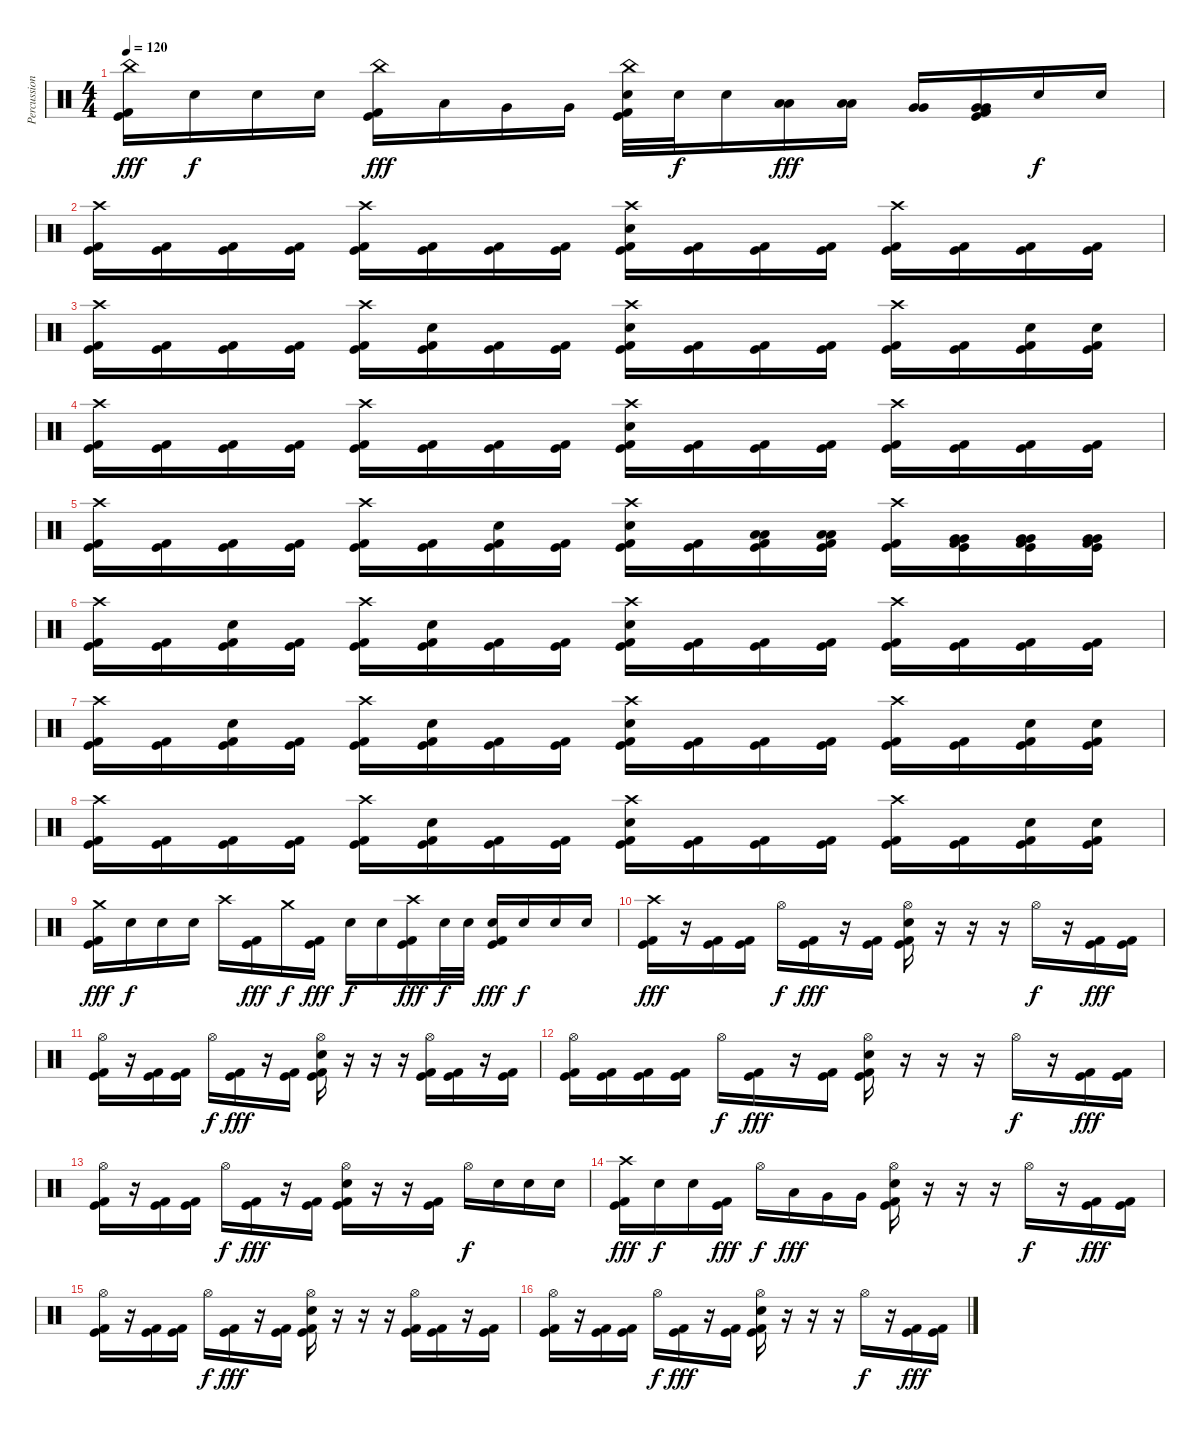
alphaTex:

\track ("Percussion" "Percussion") {instrument percussion}
\staff {score}
\articulation defaults
\ts (4 4)
\tempo 120
\clef neutral
\ks c
("China (hit)" "Kick (hit)" "Kick (hit) 2").16{dy fff} "Electric Snare (hit)".16{dy f} "Electric Snare (hit)".16 "Electric Snare (hit)".16 ("China (hit)" "Kick (hit)" "Kick (hit) 2").16{dy fff} "Low Tom (hit)".16 "Very Low Tom (hit)".16 "Very Low Tom (hit)".16 ("China (hit)" "Electric Snare (hit)" "Kick (hit)" "Kick (hit) 2").32 "Electric Snare (hit)".32{dy f} "Electric Snare (hit)".16 ("Low Tom (hit)" "Low Tom (hit)").16{dy fff} ("Low Tom (hit)" "Low Tom (hit)").16 ("Very Low Tom (hit)" "Very Low Tom (hit)").16 ("Very Low Tom (hit)" "Very Low Tom (hit)" "Kick (hit)" "Kick (hit) 2").16 "Electric Snare (hit)".16{dy f} "Electric Snare (hit)".16 |
("Crash high (hit)" "Kick (hit)" "Kick (hit) 2").16 ("Kick (hit)" "Kick (hit) 2").16 ("Kick (hit)" "Kick (hit) 2").16 ("Kick (hit)" "Kick (hit) 2").16 ("Crash high (hit)" "Kick (hit)" "Kick (hit) 2").16 ("Kick (hit)" "Kick (hit) 2").16 ("Kick (hit)" "Kick (hit) 2").16 ("Kick (hit)" "Kick (hit) 2").16 ("Crash high (hit)" "Electric Snare (hit)" "Kick (hit)" "Kick (hit) 2").16 ("Kick (hit)" "Kick (hit) 2").16 ("Kick (hit)" "Kick (hit) 2").16 ("Kick (hit)" "Kick (hit) 2").16 ("Crash high (hit)" "Kick (hit)" "Kick (hit) 2").16 ("Kick (hit)" "Kick (hit) 2").16 ("Kick (hit)" "Kick (hit) 2").16 ("Kick (hit)" "Kick (hit) 2").16 |
("Crash high (hit)" "Kick (hit)" "Kick (hit) 2").16 ("Kick (hit)" "Kick (hit) 2").16 ("Kick (hit)" "Kick (hit) 2").16 ("Kick (hit)" "Kick (hit) 2").16 ("Crash high (hit)" "Kick (hit)" "Kick (hit) 2").16 ("Electric Snare (hit)" "Kick (hit)" "Kick (hit) 2").16 ("Kick (hit)" "Kick (hit) 2").16 ("Kick (hit)" "Kick (hit) 2").16 ("Crash high (hit)" "Electric Snare (hit)" "Kick (hit)" "Kick (hit) 2").16 ("Kick (hit)" "Kick (hit) 2").16 ("Kick (hit)" "Kick (hit) 2").16 ("Kick (hit)" "Kick (hit) 2").16 ("Crash high (hit)" "Kick (hit)" "Kick (hit) 2").16 ("Kick (hit)" "Kick (hit) 2").16 ("Electric Snare (hit)" "Kick (hit)" "Kick (hit) 2").16 ("Electric Snare (hit)" "Kick (hit)" "Kick (hit) 2").16 |
("Crash high (hit)" "Kick (hit)" "Kick (hit) 2").16 ("Kick (hit)" "Kick (hit) 2").16 ("Kick (hit)" "Kick (hit) 2").16 ("Kick (hit)" "Kick (hit) 2").16 ("Crash high (hit)" "Kick (hit)" "Kick (hit) 2").16 ("Kick (hit)" "Kick (hit) 2").16 ("Kick (hit)" "Kick (hit) 2").16 ("Kick (hit)" "Kick (hit) 2").16 ("Crash high (hit)" "Electric Snare (hit)" "Kick (hit)" "Kick (hit) 2").16 ("Kick (hit)" "Kick (hit) 2").16 ("Kick (hit)" "Kick (hit) 2").16 ("Kick (hit)" "Kick (hit) 2").16 ("Crash high (hit)" "Kick (hit)" "Kick (hit) 2").16 ("Kick (hit)" "Kick (hit) 2").16 ("Kick (hit)" "Kick (hit) 2").16 ("Kick (hit)" "Kick (hit) 2").16 |
("Crash high (hit)" "Kick (hit)" "Kick (hit) 2").16 ("Kick (hit)" "Kick (hit) 2").16 ("Kick (hit)" "Kick (hit) 2").16 ("Kick (hit)" "Kick (hit) 2").16 ("Crash high (hit)" "Kick (hit)" "Kick (hit) 2").16 ("Kick (hit)" "Kick (hit) 2").16 ("Electric Snare (hit)" "Kick (hit)" "Kick (hit) 2").16 ("Kick (hit)" "Kick (hit) 2").16 ("Crash high (hit)" "Electric Snare (hit)" "Kick (hit)" "Kick (hit) 2").16 ("Kick (hit)" "Kick (hit) 2").16 ("Low Tom (hit)" "Low Tom (hit)" "Kick (hit)" "Kick (hit) 2").16 ("Low Tom (hit)" "Low Tom (hit)" "Kick (hit)" "Kick (hit) 2").16 ("Crash high (hit)" "Kick (hit)" "Kick (hit) 2").16 ("Very Low Tom (hit)" "Very Low Tom (hit)" "Kick (hit)" "Kick (hit) 2").16 ("Very Low Tom (hit)" "Very Low Tom (hit)" "Kick (hit)" "Kick (hit) 2").16 ("Very Low Tom (hit)" "Very Low Tom (hit)" "Kick (hit)" "Kick (hit) 2").16 |
("Crash high (hit)" "Kick (hit)" "Kick (hit) 2").16 ("Kick (hit)" "Kick (hit) 2").16 ("Electric Snare (hit)" "Kick (hit)" "Kick (hit) 2").16 ("Kick (hit)" "Kick (hit) 2").16 ("Crash high (hit)" "Kick (hit)" "Kick (hit) 2").16 ("Electric Snare (hit)" "Kick (hit)" "Kick (hit) 2").16 ("Kick (hit)" "Kick (hit) 2").16 ("Kick (hit)" "Kick (hit) 2").16 ("Crash high (hit)" "Electric Snare (hit)" "Kick (hit)" "Kick (hit) 2").16 ("Kick (hit)" "Kick (hit) 2").16 ("Kick (hit)" "Kick (hit) 2").16 ("Kick (hit)" "Kick (hit) 2").16 ("Crash high (hit)" "Kick (hit)" "Kick (hit) 2").16 ("Kick (hit)" "Kick (hit) 2").16 ("Kick (hit)" "Kick (hit) 2").16 ("Kick (hit)" "Kick (hit) 2").16 |
("Crash high (hit)" "Kick (hit)" "Kick (hit) 2").16 ("Kick (hit)" "Kick (hit) 2").16 ("Electric Snare (hit)" "Kick (hit)" "Kick (hit) 2").16 ("Kick (hit)" "Kick (hit) 2").16 ("Crash high (hit)" "Kick (hit)" "Kick (hit) 2").16 ("Electric Snare (hit)" "Kick (hit)" "Kick (hit) 2").16 ("Kick (hit)" "Kick (hit) 2").16 ("Kick (hit)" "Kick (hit) 2").16 ("Crash high (hit)" "Electric Snare (hit)" "Kick (hit)" "Kick (hit) 2").16 ("Kick (hit)" "Kick (hit) 2").16 ("Kick (hit)" "Kick (hit) 2").16 ("Kick (hit)" "Kick (hit) 2").16 ("Crash high (hit)" "Kick (hit)" "Kick (hit) 2").16 ("Kick (hit)" "Kick (hit) 2").16 ("Electric Snare (hit)" "Kick (hit)" "Kick (hit) 2").16 ("Electric Snare (hit)" "Kick (hit)" "Kick (hit) 2").16 |
("Crash high (hit)" "Kick (hit)" "Kick (hit) 2").16 ("Kick (hit)" "Kick (hit) 2").16 ("Kick (hit)" "Kick (hit) 2").16 ("Kick (hit)" "Kick (hit) 2").16 ("Crash high (hit)" "Kick (hit)" "Kick (hit) 2").16 ("Electric Snare (hit)" "Kick (hit)" "Kick (hit) 2").16 ("Kick (hit)" "Kick (hit) 2").16 ("Kick (hit)" "Kick (hit) 2").16 ("Crash high (hit)" "Electric Snare (hit)" "Kick (hit)" "Kick (hit) 2").16 ("Kick (hit)" "Kick (hit) 2").16 ("Kick (hit)" "Kick (hit) 2").16 ("Kick (hit)" "Kick (hit) 2").16 ("Crash high (hit)" "Kick (hit)" "Kick (hit) 2").16 ("Kick (hit)" "Kick (hit) 2").16 ("Electric Snare (hit)" "Kick (hit)" "Kick (hit) 2").16 ("Electric Snare (hit)" "Kick (hit)" "Kick (hit) 2").16 |
("Crash medium (hit)" "Kick (hit)" "Kick (hit) 2").16{dy fff} "Electric Snare (hit)".16{dy f} "Electric Snare (hit)".16 "Electric Snare (hit)".16 "Crash high (hit)".16 ("Kick (hit)" "Kick (hit) 2").16{dy fff} "Crash medium (hit)".16{dy f} ("Kick (hit)" "Kick (hit) 2").16{dy fff} "Electric Snare (hit)".16{dy f} "Electric Snare (hit)".16 ("Crash high (hit)" "Kick (hit)" "Kick (hit) 2").16{dy fff} "Electric Snare (hit)".32{dy f} "Electric Snare (hit)".32 ("Electric Snare (hit)" "Kick (hit)" "Kick (hit) 2").16{dy fff} "Electric Snare (hit)".16{dy f} "Electric Snare (hit)".16 "Electric Snare (hit)".16 |
("Crash high (hit)" "Kick (hit)" "Kick (hit) 2").16{dy fff} r.16 ("Kick (hit)" "Kick (hit) 2").16 ("Kick (hit)" "Kick (hit) 2").16 "Hi-Hat (open)".16{dy f} ("Kick (hit)" "Kick (hit) 2").16{dy fff} r.16 ("Kick (hit)" "Kick (hit) 2").16 ("Hi-Hat (open)" "Electric Snare (hit)" "Kick (hit)" "Kick (hit) 2").16 r.16 r.16 r.16 "Hi-Hat (open)".16{dy f} r.16 ("Kick (hit)" "Kick (hit) 2").16{dy fff} ("Kick (hit)" "Kick (hit) 2").16 |
("Hi-Hat (open)" "Kick (hit)" "Kick (hit) 2").16 r.16 ("Kick (hit)" "Kick (hit) 2").16 ("Kick (hit)" "Kick (hit) 2").16 "Hi-Hat (open)".16{dy f} ("Kick (hit)" "Kick (hit) 2").16{dy fff} r.16 ("Kick (hit)" "Kick (hit) 2").16 ("Hi-Hat (open)" "Electric Snare (hit)" "Kick (hit)" "Kick (hit) 2").16 r.16 r.16 r.16 ("Hi-Hat (open)" "Kick (hit)" "Kick (hit) 2").16 ("Kick (hit)" "Kick (hit) 2").16 r.16 ("Kick (hit)" "Kick (hit) 2").16 |
("Hi-Hat (open)" "Kick (hit)" "Kick (hit) 2").16 ("Kick (hit)" "Kick (hit) 2").16 ("Kick (hit)" "Kick (hit) 2").16 ("Kick (hit)" "Kick (hit) 2").16 "Hi-Hat (open)".16{dy f} ("Kick (hit)" "Kick (hit) 2").16{dy fff} r.16 ("Kick (hit)" "Kick (hit) 2").16 ("Hi-Hat (open)" "Electric Snare (hit)" "Kick (hit)" "Kick (hit) 2").16 r.16 r.16 r.16 "Hi-Hat (open)".16{dy f} r.16 ("Kick (hit)" "Kick (hit) 2").16{dy fff} ("Kick (hit)" "Kick (hit) 2").16 |
("Hi-Hat (open)" "Kick (hit)" "Kick (hit) 2").16 r.16 ("Kick (hit)" "Kick (hit) 2").16 ("Kick (hit)" "Kick (hit) 2").16 "Hi-Hat (open)".16{dy f} ("Kick (hit)" "Kick (hit) 2").16{dy fff} r.16 ("Kick (hit)" "Kick (hit) 2").16 ("Hi-Hat (open)" "Electric Snare (hit)" "Kick (hit)" "Kick (hit) 2").16 r.16 r.16 ("Kick (hit)" "Kick (hit) 2").16 "Hi-Hat (open)".16{dy f} "Electric Snare (hit)".16 "Electric Snare (hit)".16 "Electric Snare (hit)".16 |
("Crash high (hit)" "Kick (hit)" "Kick (hit) 2").16{dy fff} "Electric Snare (hit)".16{dy f} "Electric Snare (hit)".16 ("Kick (hit)" "Kick (hit) 2").16{dy fff} "Hi-Hat (open)".16{dy f} "Low Tom (hit)".16{dy fff} "Very Low Tom (hit)".16 "Very Low Tom (hit)".16 ("Hi-Hat (open)" "Electric Snare (hit)" "Kick (hit)" "Kick (hit) 2").16 r.16 r.16 r.16 "Hi-Hat (open)".16{dy f} r.16 ("Kick (hit)" "Kick (hit) 2").16{dy fff} ("Kick (hit)" "Kick (hit) 2").16 |
("Hi-Hat (open)" "Kick (hit)" "Kick (hit) 2").16 r.16 ("Kick (hit)" "Kick (hit) 2").16 ("Kick (hit)" "Kick (hit) 2").16 "Hi-Hat (open)".16{dy f} ("Kick (hit)" "Kick (hit) 2").16{dy fff} r.16 ("Kick (hit)" "Kick (hit) 2").16 ("Hi-Hat (open)" "Electric Snare (hit)" "Kick (hit)" "Kick (hit) 2").16 r.16 r.16 r.16 ("Hi-Hat (open)" "Kick (hit)" "Kick (hit) 2").16 ("Kick (hit)" "Kick (hit) 2").16 r.16 ("Kick (hit)" "Kick (hit) 2").16 |
("Hi-Hat (open)" "Kick (hit)" "Kick (hit) 2").16 r.16 ("Kick (hit)" "Kick (hit) 2").16 ("Kick (hit)" "Kick (hit) 2").16 "Hi-Hat (open)".16{dy f} ("Kick (hit)" "Kick (hit) 2").16{dy fff} r.16 ("Kick (hit)" "Kick (hit) 2").16 ("Hi-Hat (open)" "Electric Snare (hit)" "Kick (hit)" "Kick (hit) 2").16 r.16 r.16 r.16 "Hi-Hat (open)".16{dy f} r.16 ("Kick (hit)" "Kick (hit) 2").16{dy fff} ("Kick (hit)" "Kick (hit) 2").16
